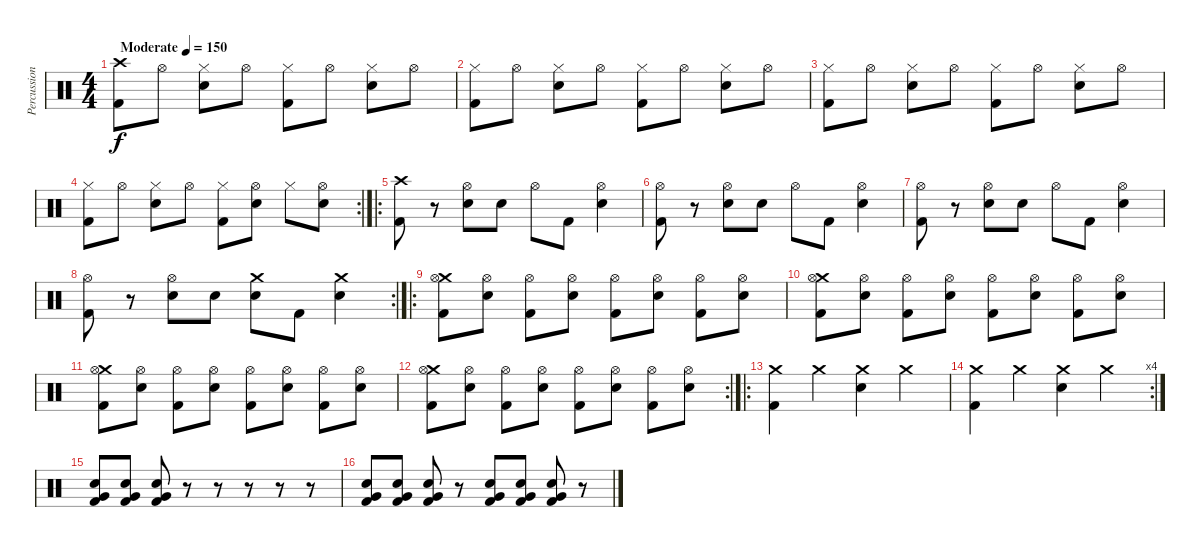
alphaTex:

\track ("Percussion" "Percussion") {instrument percussion}
\staff {score}
\articulation defaults
\ts (4 4)
\tempo (150 "Moderate")
\clef neutral
\ks c
("Crash high (hit)" "Kick (hit) 2").8{dy f} "Hi-Hat (open)".8 ("Hi-Hat (closed)" "Electric Snare (hit)").8 "Hi-Hat (open)".8 ("Hi-Hat (closed)" "Kick (hit) 2").8 "Hi-Hat (open)".8 ("Hi-Hat (closed)" "Electric Snare (hit)").8 "Hi-Hat (open)".8 |
("Hi-Hat (closed)" "Kick (hit) 2").8 "Hi-Hat (open)".8 ("Hi-Hat (closed)" "Electric Snare (hit)").8 "Hi-Hat (open)".8 ("Hi-Hat (closed)" "Kick (hit) 2").8 "Hi-Hat (open)".8 ("Hi-Hat (closed)" "Electric Snare (hit)").8 "Hi-Hat (open)".8 |
("Hi-Hat (closed)" "Kick (hit) 2").8 "Hi-Hat (open)".8 ("Hi-Hat (closed)" "Electric Snare (hit)").8 "Hi-Hat (open)".8 ("Hi-Hat (closed)" "Kick (hit) 2").8 "Hi-Hat (open)".8 ("Hi-Hat (closed)" "Electric Snare (hit)").8 "Hi-Hat (open)".8 |
\rc 2
("Hi-Hat (closed)" "Kick (hit) 2").8 "Hi-Hat (open)".8 ("Hi-Hat (closed)" "Electric Snare (hit)").8 "Hi-Hat (open)".8 ("Hi-Hat (closed)" "Kick (hit) 2").8 ("Hi-Hat (open)" "Electric Snare (hit)").8 "Hi-Hat (closed)".8 ("Hi-Hat (open)" "Electric Snare (hit)").8 |
\ro
("Crash high (hit)" "Kick (hit) 2").8 r.8 ("Hi-Hat (open)" "Electric Snare (hit)").8 "Electric Snare (hit)".8 "Hi-Hat (open)".8 "Kick (hit) 2".8 ("Hi-Hat (open)" "Electric Snare (hit)").4 |
("Hi-Hat (open)" "Kick (hit) 2").8 r.8 ("Hi-Hat (open)" "Electric Snare (hit)").8 "Electric Snare (hit)".8 "Hi-Hat (open)".8 "Kick (hit) 2".8 ("Hi-Hat (open)" "Electric Snare (hit)").4 |
("Hi-Hat (open)" "Kick (hit) 2").8 r.8 ("Hi-Hat (open)" "Electric Snare (hit)").8 "Electric Snare (hit)".8 "Hi-Hat (open)".8 "Kick (hit) 2".8 ("Hi-Hat (open)" "Electric Snare (hit)").4 |
\rc 2
("Hi-Hat (open)" "Kick (hit) 2").8 r.8 ("Hi-Hat (open)" "Electric Snare (hit)").8 "Electric Snare (hit)".8 ("Crash medium (hit)" "Electric Snare (hit)").8 "Kick (hit) 2".8 ("Crash medium (hit)" "Electric Snare (hit)").4 |
\ro
("Crash medium (hit)" "Hi-Hat (open)" "Kick (hit) 2").8 ("Hi-Hat (open)" "Electric Snare (hit)").8 ("Hi-Hat (open)" "Kick (hit) 2").8 ("Hi-Hat (open)" "Electric Snare (hit)").8 ("Hi-Hat (open)" "Kick (hit) 2").8 ("Hi-Hat (open)" "Electric Snare (hit)").8 ("Hi-Hat (open)" "Kick (hit) 2").8 ("Hi-Hat (open)" "Electric Snare (hit)").8 |
("Crash medium (hit)" "Hi-Hat (open)" "Kick (hit) 2").8 ("Hi-Hat (open)" "Electric Snare (hit)").8 ("Hi-Hat (open)" "Kick (hit) 2").8 ("Hi-Hat (open)" "Electric Snare (hit)").8 ("Hi-Hat (open)" "Kick (hit) 2").8 ("Hi-Hat (open)" "Electric Snare (hit)").8 ("Hi-Hat (open)" "Kick (hit) 2").8 ("Hi-Hat (open)" "Electric Snare (hit)").8 |
("Crash medium (hit)" "Hi-Hat (open)" "Kick (hit) 2").8 ("Hi-Hat (open)" "Electric Snare (hit)").8 ("Hi-Hat (open)" "Kick (hit) 2").8 ("Hi-Hat (open)" "Electric Snare (hit)").8 ("Hi-Hat (open)" "Kick (hit) 2").8 ("Hi-Hat (open)" "Electric Snare (hit)").8 ("Hi-Hat (open)" "Kick (hit) 2").8 ("Hi-Hat (open)" "Electric Snare (hit)").8 |
\rc 2
("Crash medium (hit)" "Hi-Hat (open)" "Kick (hit) 2").8 ("Hi-Hat (open)" "Electric Snare (hit)").8 ("Hi-Hat (open)" "Kick (hit) 2").8 ("Hi-Hat (open)" "Electric Snare (hit)").8 ("Hi-Hat (open)" "Kick (hit) 2").8 ("Hi-Hat (open)" "Electric Snare (hit)").8 ("Hi-Hat (open)" "Kick (hit) 2").8 ("Hi-Hat (open)" "Electric Snare (hit)").8 |
\ro
("Crash medium (hit)" "Kick (hit) 2").4 "Crash medium (hit)".4 ("Crash medium (hit)" "Electric Snare (hit)").4 "Crash medium (hit)".4 |
\rc 4
("Crash medium (hit)" "Kick (hit) 2").4 "Crash medium (hit)".4 ("Crash medium (hit)" "Electric Snare (hit)").4 "Crash medium (hit)".4 |
("Very Low Tom (hit)" "Electric Snare (hit)" "Kick (hit) 2").8 ("Very Low Tom (hit)" "Electric Snare (hit)" "Kick (hit) 2").8 ("Very Low Tom (hit)" "Electric Snare (hit)" "Kick (hit) 2").8 r.8 r.8 r.8 r.8 r.8 |
("Very Low Tom (hit)" "Electric Snare (hit)" "Kick (hit) 2").8 ("Very Low Tom (hit)" "Electric Snare (hit)" "Kick (hit) 2").8 ("Very Low Tom (hit)" "Electric Snare (hit)" "Kick (hit) 2").8 r.8 ("Very Low Tom (hit)" "Electric Snare (hit)" "Kick (hit) 2").8 ("Very Low Tom (hit)" "Electric Snare (hit)" "Kick (hit) 2").8 ("Very Low Tom (hit)" "Electric Snare (hit)" "Kick (hit) 2").8 r.8
